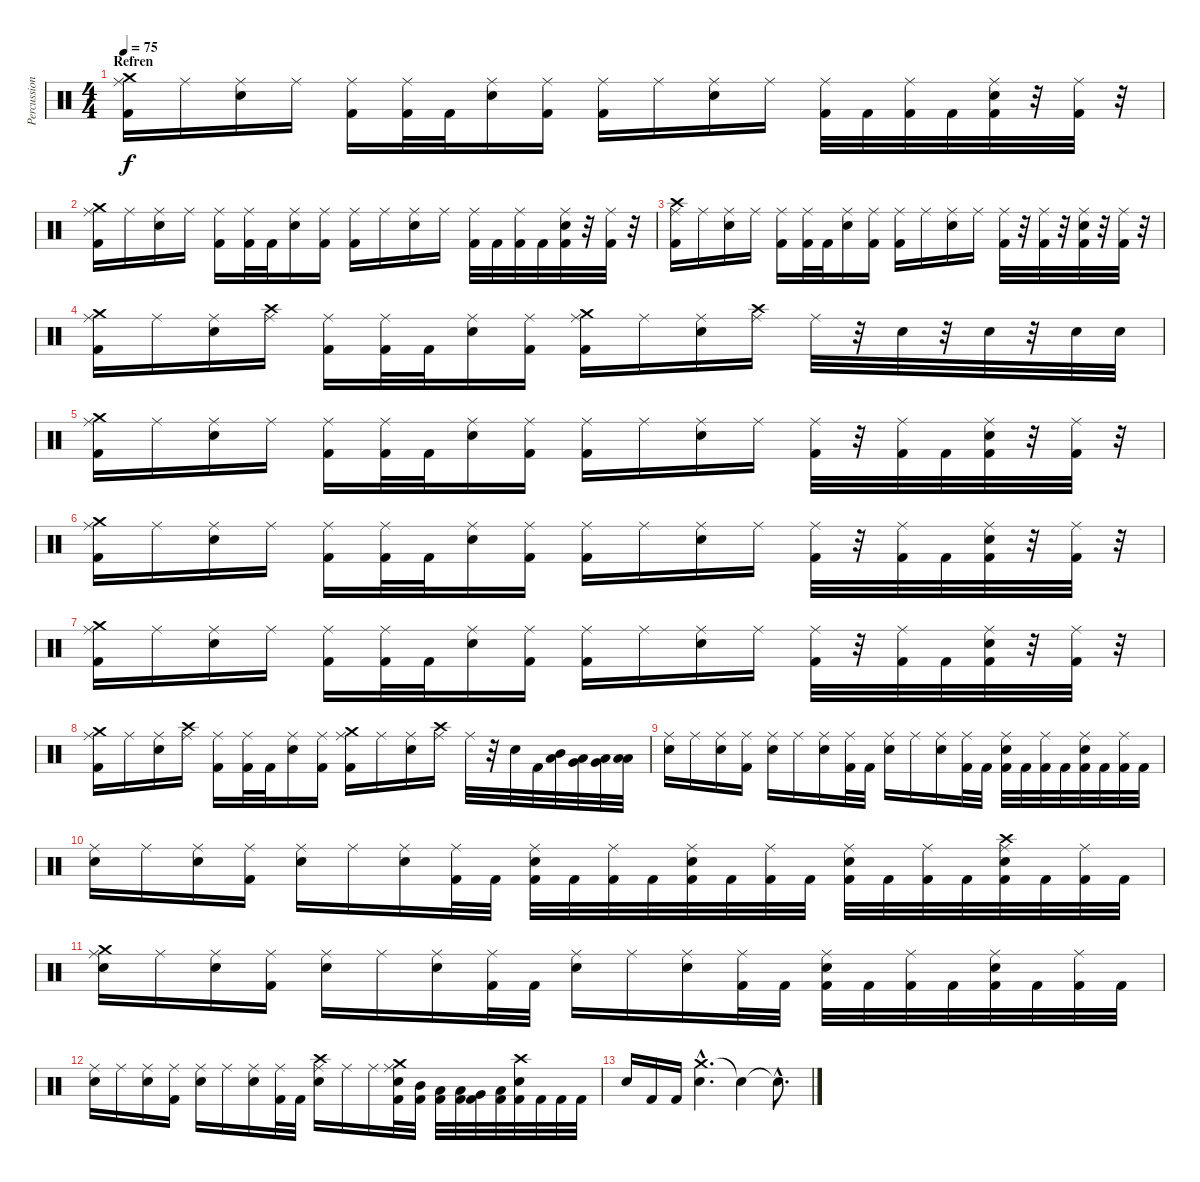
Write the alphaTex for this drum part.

\track ("Percussion" "Percussion") {instrument percussion}
\staff {score}
\articulation defaults
\ts (4 4)
\section ("" "Refren")
\tempo 75
\clef neutral
\ks c
("Ride (middle)" "Crash medium (hit)" "Kick (hit) 2").16{dy f} "Ride (middle)".16 ("Ride (middle)" "Electric Snare (hit)").16 "Ride (middle)".16 ("Ride (middle)" "Kick (hit) 2").16 ("Ride (middle)" "Kick (hit) 2").32 "Kick (hit) 2".32 ("Ride (middle)" "Electric Snare (hit)").16 ("Ride (middle)" "Kick (hit) 2").16 ("Ride (middle)" "Kick (hit) 2").16 "Ride (middle)".16 ("Ride (middle)" "Electric Snare (hit)").16 "Ride (middle)".16 ("Ride (middle)" "Kick (hit) 2").32 "Kick (hit) 2".32 ("Ride (middle)" "Kick (hit) 2").32 "Kick (hit) 2".32 ("Ride (middle)" "Kick (hit) 2" "Electric Snare (hit)").32 r.32 ("Ride (middle)" "Kick (hit) 2").32 r.32 |
("Ride (middle)" "Crash medium (hit)" "Kick (hit) 2").16 "Ride (middle)".16 ("Ride (middle)" "Electric Snare (hit)").16 "Ride (middle)".16 ("Ride (middle)" "Kick (hit) 2").16 ("Ride (middle)" "Kick (hit) 2").32 "Kick (hit) 2".32 ("Ride (middle)" "Electric Snare (hit)").16 ("Ride (middle)" "Kick (hit) 2").16 ("Ride (middle)" "Kick (hit) 2").16 "Ride (middle)".16 ("Ride (middle)" "Electric Snare (hit)").16 "Ride (middle)".16 ("Ride (middle)" "Kick (hit) 2").32 "Kick (hit) 2".32 ("Ride (middle)" "Kick (hit) 2").32 "Kick (hit) 2".32 ("Ride (middle)" "Kick (hit) 2" "Electric Snare (hit)").32 r.32 ("Ride (middle)" "Kick (hit) 2").32 r.32 |
("Ride (middle)" "Crash high (hit)" "Kick (hit) 2").16 "Ride (middle)".16 ("Ride (middle)" "Electric Snare (hit)").16 "Ride (middle)".16 ("Ride (middle)" "Kick (hit) 2").16 ("Ride (middle)" "Kick (hit) 2").32 "Kick (hit) 2".32 ("Ride (middle)" "Electric Snare (hit)").16 ("Ride (middle)" "Kick (hit) 2").16 ("Ride (middle)" "Kick (hit) 2").16 "Ride (middle)".16 ("Ride (middle)" "Electric Snare (hit)").16 "Ride (middle)".16 ("Ride (middle)" "Kick (hit) 2").32 r.32 ("Ride (middle)" "Kick (hit) 2").32 r.32 ("Ride (middle)" "Kick (hit) 2" "Electric Snare (hit)").32 r.32 ("Ride (middle)" "Kick (hit) 2").32 r.32 |
("Ride (middle)" "Crash medium (hit)" "Kick (hit) 2").16 "Ride (middle)".16 ("Ride (middle)" "Electric Snare (hit)").16 ("Ride (middle)" "Crash high (hit)").16 ("Ride (middle)" "Kick (hit) 2").16 ("Ride (middle)" "Kick (hit) 2").32 "Kick (hit) 2".32 ("Ride (middle)" "Electric Snare (hit)").16 ("Ride (middle)" "Kick (hit) 2").16 ("Ride (middle)" "Crash medium (hit)" "Kick (hit) 2").16 "Ride (middle)".16 ("Ride (middle)" "Electric Snare (hit)").16 ("Ride (middle)" "Crash high (hit)").16 "Ride (middle)".32 r.32 "Electric Snare (hit)".32 r.32 "Electric Snare (hit)".32 r.32 "Electric Snare (hit)".32 "Electric Snare (hit)".32 |
("Ride (middle)" "Crash medium (hit)" "Kick (hit) 2").16 "Ride (middle)".16 ("Ride (middle)" "Electric Snare (hit)").16 "Ride (middle)".16 ("Ride (middle)" "Kick (hit) 2").16 ("Ride (middle)" "Kick (hit) 2").32 "Kick (hit) 2".32 ("Ride (middle)" "Electric Snare (hit)").16 ("Ride (middle)" "Kick (hit) 2").16 ("Ride (middle)" "Kick (hit) 2").16 "Ride (middle)".16 ("Ride (middle)" "Electric Snare (hit)").16 "Ride (middle)".16 ("Ride (middle)" "Kick (hit) 2").32 r.32 ("Ride (middle)" "Kick (hit) 2").32 "Kick (hit) 2".32 ("Ride (middle)" "Kick (hit) 2" "Electric Snare (hit)").32 r.32 ("Ride (middle)" "Kick (hit) 2").32 r.32 |
("Ride (middle)" "Crash medium (hit)" "Kick (hit) 2").16 "Ride (middle)".16 ("Ride (middle)" "Electric Snare (hit)").16 "Ride (middle)".16 ("Ride (middle)" "Kick (hit) 2").16 ("Ride (middle)" "Kick (hit) 2").32 "Kick (hit) 2".32 ("Ride (middle)" "Electric Snare (hit)").16 ("Ride (middle)" "Kick (hit) 2").16 ("Ride (middle)" "Kick (hit) 2").16 "Ride (middle)".16 ("Ride (middle)" "Electric Snare (hit)").16 "Ride (middle)".16 ("Ride (middle)" "Kick (hit) 2").32 r.32 ("Ride (middle)" "Kick (hit) 2").32 "Kick (hit) 2".32 ("Ride (middle)" "Kick (hit) 2" "Electric Snare (hit)").32 r.32 ("Ride (middle)" "Kick (hit) 2").32 r.32 |
("Ride (middle)" "Crash medium (hit)" "Kick (hit) 2").16 "Ride (middle)".16 ("Ride (middle)" "Electric Snare (hit)").16 "Ride (middle)".16 ("Ride (middle)" "Kick (hit) 2").16 ("Ride (middle)" "Kick (hit) 2").32 "Kick (hit) 2".32 ("Ride (middle)" "Electric Snare (hit)").16 ("Ride (middle)" "Kick (hit) 2").16 ("Ride (middle)" "Kick (hit) 2").16 "Ride (middle)".16 ("Ride (middle)" "Electric Snare (hit)").16 "Ride (middle)".16 ("Ride (middle)" "Kick (hit) 2").32 r.32 ("Ride (middle)" "Kick (hit) 2").32 "Kick (hit) 2".32 ("Ride (middle)" "Kick (hit) 2" "Electric Snare (hit)").32 r.32 ("Ride (middle)" "Kick (hit) 2").32 r.32 |
("Ride (middle)" "Crash medium (hit)" "Kick (hit) 2").16 "Ride (middle)".16 ("Ride (middle)" "Electric Snare (hit)").16 ("Ride (middle)" "Crash high (hit)").16 ("Ride (middle)" "Kick (hit) 2").16 ("Ride (middle)" "Kick (hit) 2").32 "Kick (hit) 2".32 ("Ride (middle)" "Electric Snare (hit)").16 ("Ride (middle)" "Kick (hit) 2").16 ("Ride (middle)" "Crash medium (hit)" "Kick (hit) 2").16 "Ride (middle)".16 ("Ride (middle)" "Electric Snare (hit)").16 ("Ride (middle)" "Crash high (hit)").16 "Ride (middle)".32 r.32 "Electric Snare (hit)".32 "Kick (hit) 2".32 ("Mid Tom (hit)" "Low Tom (hit)").32 ("Low Tom (hit)" "Very Low Tom (hit)").32 ("Very Low Tom (hit)" "Low Floor Tom (hit)").32 ("Low Floor Tom (hit)" "Low Floor Tom (hit)").32 |
("Ride (middle)" "Electric Snare (hit)").16 "Ride (middle)".16 ("Ride (middle)" "Electric Snare (hit)").16 ("Ride (middle)" "Kick (hit) 2").16 ("Ride (middle)" "Electric Snare (hit)").16 "Ride (middle)".16 ("Ride (middle)" "Electric Snare (hit)").16 ("Ride (middle)" "Kick (hit) 2").32 "Kick (hit) 2".32 ("Ride (middle)" "Electric Snare (hit)").16 "Ride (middle)".16 ("Ride (middle)" "Electric Snare (hit)").16 ("Ride (middle)" "Kick (hit) 2").32 "Kick (hit) 2".32 ("Ride (middle)" "Kick (hit) 2" "Electric Snare (hit)").32 "Kick (hit) 2".32 ("Ride (middle)" "Kick (hit) 2").32 "Kick (hit) 2".32 ("Ride (middle)" "Kick (hit) 2" "Electric Snare (hit)").32 "Kick (hit) 2".32 ("Ride (middle)" "Kick (hit) 2").32 "Kick (hit) 2".32 |
("Ride (middle)" "Electric Snare (hit)").16 "Ride (middle)".16 ("Ride (middle)" "Electric Snare (hit)").16 ("Ride (middle)" "Kick (hit) 2").16 ("Ride (middle)" "Electric Snare (hit)").16 "Ride (middle)".16 ("Ride (middle)" "Electric Snare (hit)").16 ("Ride (middle)" "Kick (hit) 2").32 "Kick (hit) 2".32 ("Ride (middle)" "Kick (hit) 2" "Electric Snare (hit)").32 "Kick (hit) 2".32 ("Ride (middle)" "Kick (hit) 2").32 "Kick (hit) 2".32 ("Ride (middle)" "Kick (hit) 2" "Electric Snare (hit)").32 "Kick (hit) 2".32 ("Ride (middle)" "Kick (hit) 2").32 "Kick (hit) 2".32 ("Ride (middle)" "Kick (hit) 2" "Electric Snare (hit)").32 "Kick (hit) 2".32 ("Ride (middle)" "Kick (hit) 2").32 "Kick (hit) 2".32 ("Ride (middle)" "Crash high (hit)" "Kick (hit) 2" "Electric Snare (hit)").32 "Kick (hit) 2".32 ("Ride (middle)" "Kick (hit) 2").32 "Kick (hit) 2".32 |
("Ride (middle)" "Crash medium (hit)" "Electric Snare (hit)").16 "Ride (middle)".16 ("Ride (middle)" "Electric Snare (hit)").16 ("Ride (middle)" "Kick (hit) 2").16 ("Ride (middle)" "Electric Snare (hit)").16 "Ride (middle)".16 ("Ride (middle)" "Electric Snare (hit)").16 ("Ride (middle)" "Kick (hit) 2").32 "Kick (hit) 2".32 ("Ride (middle)" "Electric Snare (hit)").16 "Ride (middle)".16 ("Ride (middle)" "Electric Snare (hit)").16 ("Ride (middle)" "Kick (hit) 2").32 "Kick (hit) 2".32 ("Ride (middle)" "Kick (hit) 2" "Electric Snare (hit)").32 "Kick (hit) 2".32 ("Ride (middle)" "Kick (hit) 2").32 "Kick (hit) 2".32 ("Ride (middle)" "Kick (hit) 2" "Electric Snare (hit)").32 "Kick (hit) 2".32 ("Ride (middle)" "Kick (hit) 2").32 "Kick (hit) 2".32 |
("Ride (middle)" "Electric Snare (hit)").16 "Ride (middle)".16 ("Ride (middle)" "Electric Snare (hit)").16 ("Ride (middle)" "Kick (hit) 2").16 ("Ride (middle)" "Electric Snare (hit)").16 "Ride (middle)".16 ("Ride (middle)" "Electric Snare (hit)").16 ("Ride (middle)" "Kick (hit) 2").32 "Kick (hit) 2".32 ("Ride (middle)" "Crash high (hit)" "Electric Snare (hit)").16 "Ride (middle)".16 "Ride (middle)".16 ("Ride (middle)" "Crash medium (hit)" "Kick (hit) 2" "Electric Snare (hit)").32 ("Kick (hit) 2" "Mid Tom (hit)").32 ("Kick (hit) 2" "Low Tom (hit)").32 ("Kick (hit) 2" "Low Tom (hit)").32 ("Kick (hit) 2" "Very Low Tom (hit)").32 ("Kick (hit) 2" "Low Floor Tom (hit)").32 ("Crash high (hit)" "Kick (hit) 2" "Electric Snare (hit)").32 "Kick (hit) 2".32 "Kick (hit) 2".32 "Kick (hit) 2".32 |
"Electric Snare (hit)".16 "Kick (hit) 2".16 "Kick (hit) 2".16 ("Crash medium (hit)"{hac} "Electric Snare (hit)"{hac}).4{d} "Snare (hit)"{t}.4 "Snare (hit)"{hac t}.8{d}
